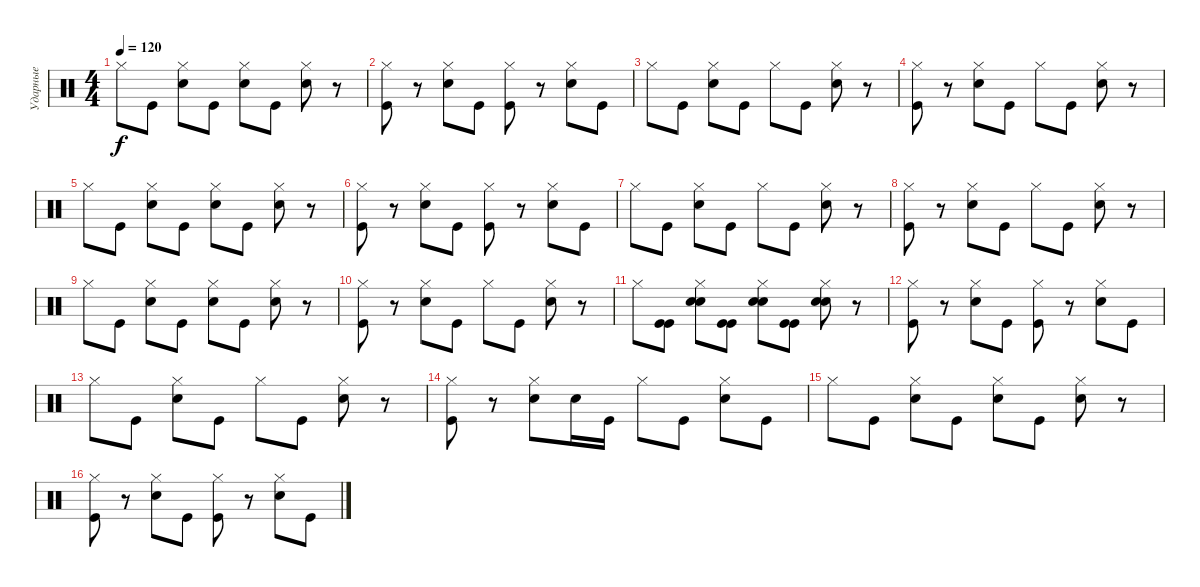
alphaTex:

\track ("Ударные" "Ударные") {instrument percussion}
\staff {score}
\articulation defaults
\ts (4 4)
\tempo 120
\clef neutral
\ks c "Hi-Hat (closed)".8{dy f} "Kick (hit)".8
("Hi-Hat (closed)" "Snare (hit) 2").8 "Kick (hit)".8 ("Hi-Hat (closed)" "Snare (hit) 2").8 "Kick (hit)".8 ("Hi-Hat (closed)" "Snare (hit) 2").8 r.8 |
("Hi-Hat (closed)" "Kick (hit)").8 r.8 ("Hi-Hat (closed)" "Snare (hit) 2").8 "Kick (hit)".8 ("Hi-Hat (closed)" "Kick (hit)").8 r.8 ("Hi-Hat (closed)" "Snare (hit) 2").8 "Kick (hit)".8 |
"Hi-Hat (closed)".8 "Kick (hit)".8 ("Hi-Hat (closed)" "Snare (hit) 2").8 "Kick (hit)".8 "Hi-Hat (closed)".8 "Kick (hit)".8 ("Hi-Hat (closed)" "Snare (hit) 2").8 r.8 |
("Hi-Hat (closed)" "Kick (hit)").8 r.8 ("Hi-Hat (closed)" "Snare (hit) 2").8 "Kick (hit)".8 "Hi-Hat (closed)".8 "Kick (hit)".8 ("Hi-Hat (closed)" "Snare (hit) 2").8 r.8 |
"Hi-Hat (closed)".8 "Kick (hit)".8 ("Hi-Hat (closed)" "Snare (hit) 2").8 "Kick (hit)".8 ("Hi-Hat (closed)" "Snare (hit) 2").8 "Kick (hit)".8 ("Hi-Hat (closed)" "Snare (hit) 2").8 r.8 |
("Hi-Hat (closed)" "Kick (hit)").8 r.8 ("Hi-Hat (closed)" "Snare (hit) 2").8 "Kick (hit)".8 ("Hi-Hat (closed)" "Kick (hit)").8 r.8 ("Hi-Hat (closed)" "Snare (hit) 2").8 "Kick (hit)".8 |
"Hi-Hat (closed)".8 "Kick (hit)".8 ("Hi-Hat (closed)" "Snare (hit) 2").8 "Kick (hit)".8 "Hi-Hat (closed)".8 "Kick (hit)".8 ("Hi-Hat (closed)" "Snare (hit) 2").8 r.8 |
("Hi-Hat (closed)" "Kick (hit)").8 r.8 ("Hi-Hat (closed)" "Snare (hit) 2").8 "Kick (hit)".8 "Hi-Hat (closed)".8 "Kick (hit)".8 ("Hi-Hat (closed)" "Snare (hit) 2").8 r.8 |
"Hi-Hat (closed)".8 "Kick (hit)".8 ("Hi-Hat (closed)" "Snare (hit) 2").8 "Kick (hit)".8 ("Hi-Hat (closed)" "Snare (hit) 2").8 "Kick (hit)".8 ("Hi-Hat (closed)" "Snare (hit) 2").8 r.8 |
("Hi-Hat (closed)" "Kick (hit)").8 r.8 ("Hi-Hat (closed)" "Snare (hit) 2").8 "Kick (hit)".8 "Hi-Hat (closed)".8 "Kick (hit)".8 ("Hi-Hat (closed)" "Snare (hit) 2").8 r.8 |
"Hi-Hat (closed)".8 ("Kick (hit)" "Kick (hit)").8 ("Hi-Hat (closed)" "Snare (hit) 2" "Snare (hit) 2").8 ("Kick (hit)" "Kick (hit)").8 ("Hi-Hat (closed)" "Snare (hit) 2" "Snare (hit) 2").8 ("Kick (hit)" "Kick (hit)").8 ("Hi-Hat (closed)" "Snare (hit) 2" "Snare (hit) 2").8 r.8 |
("Hi-Hat (closed)" "Kick (hit)").8 r.8 ("Hi-Hat (closed)" "Snare (hit) 2").8 "Kick (hit)".8 ("Hi-Hat (closed)" "Kick (hit)").8 r.8 ("Hi-Hat (closed)" "Snare (hit) 2").8 "Kick (hit)".8 |
"Hi-Hat (closed)".8 "Kick (hit)".8 ("Hi-Hat (closed)" "Snare (hit) 2").8 "Kick (hit)".8 "Hi-Hat (closed)".8 "Kick (hit)".8 ("Hi-Hat (closed)" "Snare (hit) 2").8 r.8 |
("Hi-Hat (closed)" "Kick (hit)").8 r.8 ("Hi-Hat (closed)" "Snare (hit) 2").8 "Snare (hit) 2".16 "Kick (hit)".16 "Hi-Hat (closed)".8 "Kick (hit)".8 ("Hi-Hat (closed)" "Snare (hit) 2").8 "Kick (hit)".8 |
"Hi-Hat (closed)".8 "Kick (hit)".8 ("Hi-Hat (closed)" "Snare (hit) 2").8 "Kick (hit)".8 ("Hi-Hat (closed)" "Snare (hit) 2").8 "Kick (hit)".8 ("Hi-Hat (closed)" "Snare (hit) 2").8 r.8 |
("Hi-Hat (closed)" "Kick (hit)").8 r.8 ("Hi-Hat (closed)" "Snare (hit) 2").8 "Kick (hit)".8 ("Hi-Hat (closed)" "Kick (hit)").8 r.8 ("Hi-Hat (closed)" "Snare (hit) 2").8 "Kick (hit)".8
